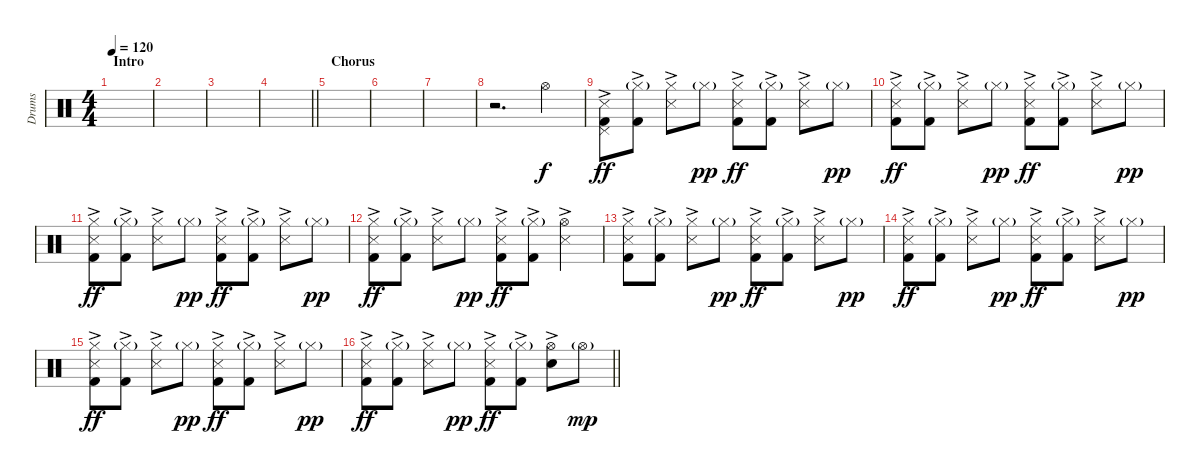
\track ("Drums" "Drums") {instrument percussion}
\staff {score}
\articulation defaults
\ts (4 4)
\section ("" "Intro")
\tempo 120
\clef neutral
\ks c
|
|
|
\barLineRight lightlight
|
\section ("" "Chorus")
|
|
|
r.2{d} "Hi-Hat (open)".4 |
("Pedal Hi-Hat (hit)" "Snare (side stick) 3"{ac} "Kick (hit) 2"{ac}).8{dy ff} ("Hi-Hat (closed)"{g} "Kick (hit) 2"{ac}).8 ("Hi-Hat (closed)" "Snare (side stick) 3"{ac}).8 "Hi-Hat (closed)"{g}.8{dy pp} ("Hi-Hat (closed)" "Snare (side stick) 3"{ac} "Kick (hit) 2"{ac}).8{dy ff} ("Hi-Hat (closed)"{g} "Kick (hit) 2"{ac}).8 ("Hi-Hat (closed)" "Snare (side stick) 3"{ac}).8 "Hi-Hat (closed)"{g}.8{dy pp} |
("Hi-Hat (closed)" "Snare (side stick) 3"{ac} "Kick (hit) 2"{ac}).8{dy ff} ("Hi-Hat (closed)"{g} "Kick (hit) 2"{ac}).8 ("Hi-Hat (closed)" "Snare (side stick) 3"{ac}).8 "Hi-Hat (closed)"{g}.8{dy pp} ("Hi-Hat (closed)" "Snare (side stick) 3"{ac} "Kick (hit) 2"{ac}).8{dy ff} ("Hi-Hat (closed)"{g} "Kick (hit) 2"{ac}).8 ("Hi-Hat (closed)" "Snare (side stick) 3"{ac}).8 "Hi-Hat (closed)"{g}.8{dy pp} |
("Hi-Hat (closed)" "Snare (side stick) 3"{ac} "Kick (hit) 2"{ac}).8{dy ff} ("Hi-Hat (closed)"{g} "Kick (hit) 2"{ac}).8 ("Hi-Hat (closed)" "Snare (side stick) 3"{ac}).8 "Hi-Hat (closed)"{g}.8{dy pp} ("Hi-Hat (closed)" "Snare (side stick) 3"{ac} "Kick (hit) 2"{ac}).8{dy ff} ("Hi-Hat (closed)"{g} "Kick (hit) 2"{ac}).8 ("Hi-Hat (closed)" "Snare (side stick) 3"{ac}).8 "Hi-Hat (closed)"{g}.8{dy pp} |
("Hi-Hat (closed)" "Snare (side stick) 3"{ac} "Kick (hit) 2"{ac}).8{dy ff} ("Hi-Hat (closed)"{g} "Kick (hit) 2"{ac}).8 ("Hi-Hat (closed)" "Snare (side stick) 3"{ac}).8 "Hi-Hat (closed)"{g}.8{dy pp} ("Hi-Hat (closed)" "Snare (side stick) 3"{ac} "Kick (hit) 2"{ac}).8{dy ff} ("Hi-Hat (closed)"{g} "Kick (hit) 2"{ac}).8 ("Hi-Hat (open)" "Snare (side stick) 3"{ac}).4 |
("Hi-Hat (closed)" "Snare (side stick) 3"{ac} "Kick (hit) 2"{ac}).8 ("Hi-Hat (closed)"{g} "Kick (hit) 2"{ac}).8 ("Hi-Hat (closed)" "Snare (side stick) 3"{ac}).8 "Hi-Hat (closed)"{g}.8{dy pp} ("Hi-Hat (closed)" "Snare (side stick) 3"{ac} "Kick (hit) 2"{ac}).8{dy ff} ("Hi-Hat (closed)"{g} "Kick (hit) 2"{ac}).8 ("Hi-Hat (closed)" "Snare (side stick) 3"{ac}).8 "Hi-Hat (closed)"{g}.8{dy pp} |
("Hi-Hat (closed)" "Snare (side stick) 3"{ac} "Kick (hit) 2"{ac}).8{dy ff} ("Hi-Hat (closed)"{g} "Kick (hit) 2"{ac}).8 ("Hi-Hat (closed)" "Snare (side stick) 3"{ac}).8 "Hi-Hat (closed)"{g}.8{dy pp} ("Hi-Hat (closed)" "Snare (side stick) 3"{ac} "Kick (hit) 2"{ac}).8{dy ff} ("Hi-Hat (closed)"{g} "Kick (hit) 2"{ac}).8 ("Hi-Hat (closed)" "Snare (side stick) 3"{ac}).8 "Hi-Hat (closed)"{g}.8{dy pp} |
("Hi-Hat (closed)" "Snare (side stick) 3"{ac} "Kick (hit) 2"{ac}).8{dy ff} ("Hi-Hat (closed)"{g} "Kick (hit) 2"{ac}).8 ("Hi-Hat (closed)" "Snare (side stick) 3"{ac}).8 "Hi-Hat (closed)"{g}.8{dy pp} ("Hi-Hat (closed)" "Snare (side stick) 3"{ac} "Kick (hit) 2"{ac}).8{dy ff} ("Hi-Hat (closed)"{g} "Kick (hit) 2"{ac}).8 ("Hi-Hat (closed)" "Snare (side stick) 3"{ac}).8 "Hi-Hat (closed)"{g}.8{dy pp} |
\barLineRight lightlight
("Hi-Hat (closed)" "Snare (side stick) 3"{ac} "Kick (hit) 2"{ac}).8{dy ff} ("Hi-Hat (closed)"{g} "Kick (hit) 2"{ac}).8 ("Hi-Hat (closed)" "Snare (side stick) 3"{ac}).8 "Hi-Hat (closed)"{g}.8{dy pp} ("Hi-Hat (closed)" "Snare (side stick) 3"{ac} "Kick (hit) 2"{ac}).8{dy ff} ("Hi-Hat (closed)"{g} "Kick (hit) 2"{ac}).8 ("Hi-Hat (open)" "Snare (hit) 2"{ac}).8 "Hi-Hat (open)"{g}.8{dy mp}
